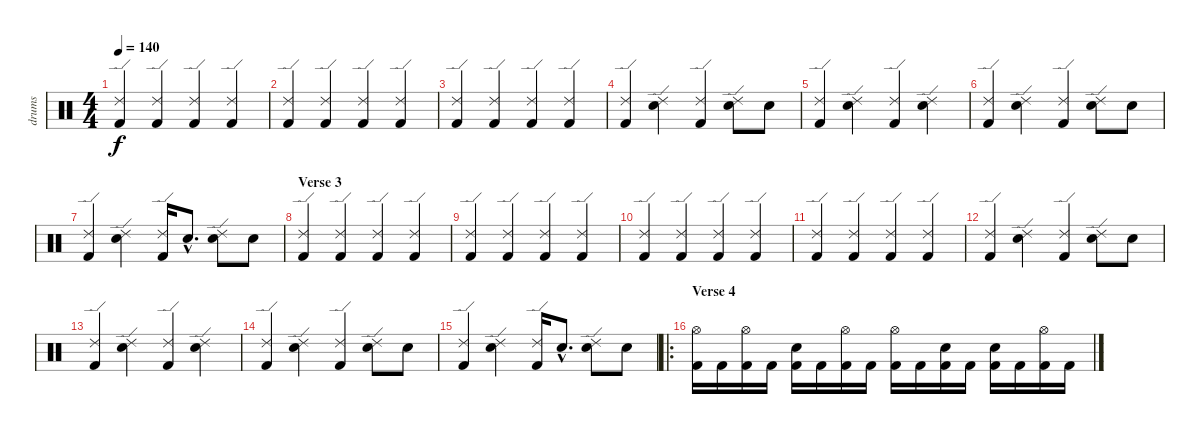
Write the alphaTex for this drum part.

\track ("drums" "drums") {instrument percussion}
\staff {score}
\articulation defaults
\ts (4 4)
\tempo 140
\clef neutral
\ks c
("Ride (edge) 2" "Kick (hit) 2").4{dy f} ("Ride (edge) 2" "Kick (hit) 2").4 ("Ride (edge) 2" "Kick (hit) 2").4 ("Ride (edge) 2" "Kick (hit) 2").4 |
("Ride (edge) 2" "Kick (hit) 2").4 ("Ride (edge) 2" "Kick (hit) 2").4 ("Ride (edge) 2" "Kick (hit) 2").4 ("Ride (edge) 2" "Kick (hit) 2").4 |
("Ride (edge) 2" "Kick (hit) 2").4 ("Ride (edge) 2" "Kick (hit) 2").4 ("Ride (edge) 2" "Kick (hit) 2").4 ("Ride (edge) 2" "Kick (hit) 2").4 |
("Ride (edge) 2" "Kick (hit) 2").4 ("Ride (edge) 2" "Electric Snare (hit)").4 ("Ride (edge) 2" "Kick (hit) 2").4 ("Ride (edge) 2" "Electric Snare (hit)").8 "Electric Snare (hit)".8 |
("Ride (edge) 2" "Kick (hit) 2").4 ("Ride (edge) 2" "Electric Snare (hit)").4 ("Ride (edge) 2" "Kick (hit) 2").4 ("Ride (edge) 2" "Electric Snare (hit)").4 |
("Ride (edge) 2" "Kick (hit) 2").4 ("Ride (edge) 2" "Electric Snare (hit)").4 ("Ride (edge) 2" "Kick (hit) 2").4 ("Ride (edge) 2" "Electric Snare (hit)").8 "Electric Snare (hit)".8 |
("Ride (edge) 2" "Kick (hit) 2").4 ("Ride (edge) 2" "Electric Snare (hit)").4 ("Ride (edge) 2" "Kick (hit) 2").16 "Electric Snare (hit)"{hac}.8{d} ("Ride (edge) 2" "Electric Snare (hit)").8 "Electric Snare (hit)".8 |
\section ("" "Verse 3")
("Ride (edge) 2" "Kick (hit) 2").4 ("Ride (edge) 2" "Kick (hit) 2").4 ("Ride (edge) 2" "Kick (hit) 2").4 ("Ride (edge) 2" "Kick (hit) 2").4 |
("Ride (edge) 2" "Kick (hit) 2").4 ("Ride (edge) 2" "Kick (hit) 2").4 ("Ride (edge) 2" "Kick (hit) 2").4 ("Ride (edge) 2" "Kick (hit) 2").4 |
("Ride (edge) 2" "Kick (hit) 2").4 ("Ride (edge) 2" "Kick (hit) 2").4 ("Ride (edge) 2" "Kick (hit) 2").4 ("Ride (edge) 2" "Kick (hit) 2").4 |
("Ride (edge) 2" "Kick (hit) 2").4 ("Ride (edge) 2" "Kick (hit) 2").4 ("Ride (edge) 2" "Kick (hit) 2").4 ("Ride (edge) 2" "Kick (hit) 2").4 |
("Ride (edge) 2" "Kick (hit) 2").4 ("Ride (edge) 2" "Electric Snare (hit)").4 ("Ride (edge) 2" "Kick (hit) 2").4 ("Ride (edge) 2" "Electric Snare (hit)").8 "Electric Snare (hit)".8 |
("Ride (edge) 2" "Kick (hit) 2").4 ("Ride (edge) 2" "Electric Snare (hit)").4 ("Ride (edge) 2" "Kick (hit) 2").4 ("Ride (edge) 2" "Electric Snare (hit)").4 |
("Ride (edge) 2" "Kick (hit) 2").4 ("Ride (edge) 2" "Electric Snare (hit)").4 ("Ride (edge) 2" "Kick (hit) 2").4 ("Ride (edge) 2" "Electric Snare (hit)").8 "Electric Snare (hit)".8 |
("Ride (edge) 2" "Kick (hit) 2").4 ("Ride (edge) 2" "Electric Snare (hit)").4 ("Ride (edge) 2" "Kick (hit) 2").16 "Electric Snare (hit)"{hac}.8{d} ("Ride (edge) 2" "Electric Snare (hit)").8 "Electric Snare (hit)".8 |
\ro
\section ("" "Verse 4")
("Hi-Hat (open)" "Kick (hit) 2").16 "Kick (hit) 2".16 ("Hi-Hat (open)" "Kick (hit) 2").16 "Kick (hit) 2".16 ("Electric Snare (hit)" "Kick (hit) 2").16 "Kick (hit) 2".16 ("Hi-Hat (open)" "Kick (hit) 2").16 "Kick (hit) 2".16 ("Hi-Hat (open)" "Kick (hit) 2").16 "Kick (hit) 2".16 ("Electric Snare (hit)" "Kick (hit) 2").16 "Kick (hit) 2".16 ("Electric Snare (hit)" "Kick (hit) 2").16 "Kick (hit) 2".16 ("Hi-Hat (open)" "Kick (hit) 2").16 "Kick (hit) 2".16
